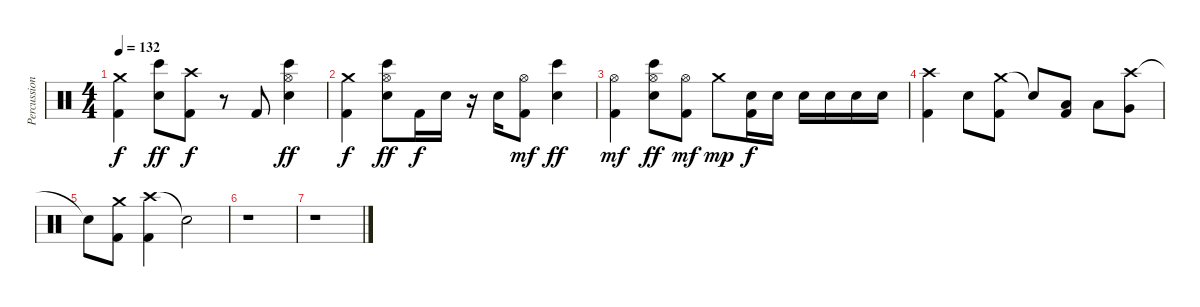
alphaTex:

\track ("Percussion" "Percussion") {instrument percussion}
\staff {score}
\articulation defaults
\ts (4 4)
\tempo 132
\clef neutral
\ks c
("Crash medium (hit)" "Kick (hit) 2").4{dy f} ("Bongo High (hit)" "Snare (hit) 2").8{dy ff} ("Crash high (hit)" "Kick (hit) 2").8{dy f} r.8 "Kick (hit) 2".8 ("Hi-Hat (open)" "Bongo High (hit)" "Snare (hit) 2").4{dy ff} |
("Crash medium (hit)" "Kick (hit) 2").4{dy f} ("Hi-Hat (open)" "Bongo High (hit)" "Snare (hit) 2").8{dy ff} "Kick (hit) 2".16{dy f} "Snare (hit) 2".16 r.16 "Snare (hit) 2".16 ("Hi-Hat (open)" "Kick (hit) 2").8{dy mf} ("Bongo High (hit)" "Snare (hit) 2").4{dy ff} |
("Hi-Hat (open)" "Kick (hit) 2").4{dy mf} ("Hi-Hat (open)" "Bongo High (hit)" "Snare (hit) 2").8{dy ff} ("Hi-Hat (open)" "Kick (hit) 2").8{dy mf} "Crash medium (hit)".8{dy mp} ("Snare (hit) 2" "Kick (hit) 2").16{dy f} "Snare (hit) 2".16 "Snare (hit) 2".16 "Snare (hit) 2".16 "Snare (hit) 2".16 "Snare (hit) 2".16 |
("Crash high (hit)" "Kick (hit) 2").4 "Snare (hit) 2".8 ("Crash medium (hit)" "Kick (hit) 2").8 "Snare (hit)"{t}.8 ("Low Tom (hit)" "Kick (hit) 2").8 "Low Tom (hit)".8 ("Crash high (hit)" "Very Low Tom (hit)").8 |
"Snare (hit)"{t}.8 ("Crash medium (hit)" "Kick (hit) 2").8 ("Crash high (hit)" "Kick (hit) 2").4 "Snare (hit)"{t}.2 |
r.1 |
r.1
